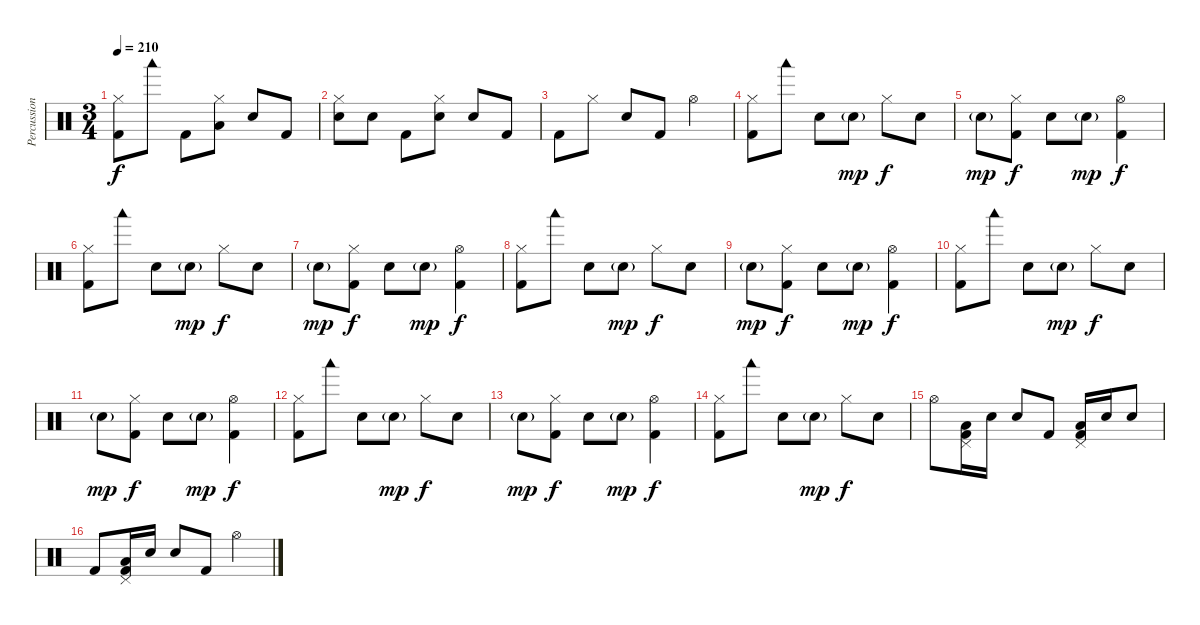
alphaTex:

\track ("Percussion" "Percussion") {instrument percussion}
\staff
\articulation defaults
\ts (3 4)
\tempo 210
\clef neutral
\ks c
("Hi-Hat (closed)" "Kick (hit) 2").8{dy f} "Woodblock low (hit)".8 "Kick (hit) 2".8 ("Hi-Hat (closed)" "Low Tom (hit)").8 "Electric Snare (hit)".8 "Kick (hit) 2".8 |
("Hi-Hat (closed)" "Electric Snare (hit)").8 "Electric Snare (hit)".8 "Kick (hit) 2".8 ("Hi-Hat (closed)" "Electric Snare (hit)").8 "Electric Snare (hit)".8 "Kick (hit) 2".8 |
"Kick (hit) 2".8 "Hi-Hat (closed)".8 "Electric Snare (hit)".8 "Kick (hit) 2".8 "Hi-Hat (open)".4 |
("Hi-Hat (closed)" "Kick (hit) 2").8 "Woodblock low (hit)".8 "Electric Snare (hit)".8 "Electric Snare (hit)"{g}.8{dy mp} "Hi-Hat (closed)".8{dy f} "Electric Snare (hit)".8 |
"Electric Snare (hit)"{g}.8{dy mp} ("Hi-Hat (closed)" "Kick (hit) 2").8{dy f} "Electric Snare (hit)".8 "Electric Snare (hit)"{g}.8{dy mp} ("Hi-Hat (open)" "Kick (hit) 2").4{dy f} |
("Hi-Hat (closed)" "Kick (hit) 2").8 "Woodblock low (hit)".8 "Electric Snare (hit)".8 "Electric Snare (hit)"{g}.8{dy mp} "Hi-Hat (closed)".8{dy f} "Electric Snare (hit)".8 |
"Electric Snare (hit)"{g}.8{dy mp} ("Hi-Hat (closed)" "Kick (hit) 2").8{dy f} "Electric Snare (hit)".8 "Electric Snare (hit)"{g}.8{dy mp} ("Hi-Hat (open)" "Kick (hit) 2").4{dy f} |
("Hi-Hat (closed)" "Kick (hit) 2").8 "Woodblock low (hit)".8 "Electric Snare (hit)".8 "Electric Snare (hit)"{g}.8{dy mp} "Hi-Hat (closed)".8{dy f} "Electric Snare (hit)".8 |
"Electric Snare (hit)"{g}.8{dy mp} ("Hi-Hat (closed)" "Kick (hit) 2").8{dy f} "Electric Snare (hit)".8 "Electric Snare (hit)"{g}.8{dy mp} ("Hi-Hat (open)" "Kick (hit) 2").4{dy f} |
("Hi-Hat (closed)" "Kick (hit) 2").8 "Woodblock low (hit)".8 "Electric Snare (hit)".8 "Electric Snare (hit)"{g}.8{dy mp} "Hi-Hat (closed)".8{dy f} "Electric Snare (hit)".8 |
"Electric Snare (hit)"{g}.8{dy mp} ("Hi-Hat (closed)" "Kick (hit) 2").8{dy f} "Electric Snare (hit)".8 "Electric Snare (hit)"{g}.8{dy mp} ("Hi-Hat (open)" "Kick (hit) 2").4{dy f} |
("Hi-Hat (closed)" "Kick (hit) 2").8 "Woodblock low (hit)".8 "Electric Snare (hit)".8 "Electric Snare (hit)"{g}.8{dy mp} "Hi-Hat (closed)".8{dy f} "Electric Snare (hit)".8 |
"Electric Snare (hit)"{g}.8{dy mp} ("Hi-Hat (closed)" "Kick (hit) 2").8{dy f} "Electric Snare (hit)".8 "Electric Snare (hit)"{g}.8{dy mp} ("Hi-Hat (open)" "Kick (hit) 2").4{dy f} |
("Hi-Hat (closed)" "Kick (hit) 2").8 "Woodblock low (hit)".8 "Electric Snare (hit)".8 "Electric Snare (hit)"{g}.8{dy mp} "Hi-Hat (closed)".8{dy f} "Electric Snare (hit)".8 |
"Hi-Hat (open)".8 ("Pedal Hi-Hat (hit)" "Low Tom (hit)" "Kick (hit) 2").16 "Electric Snare (hit)".16 "Electric Snare (hit)".8 "Kick (hit) 2".8 ("Pedal Hi-Hat (hit)" "Low Floor Tom (hit)" "Kick (hit) 2").16 "Electric Snare (hit)".16 "Electric Snare (hit)".8 |
"Kick (hit) 2".8 ("Pedal Hi-Hat (hit)" "Low Tom (hit)" "Kick (hit) 2").16 "Electric Snare (hit)".16 "Electric Snare (hit)".8 "Kick (hit) 2".8 "Hi-Hat (open)".4
